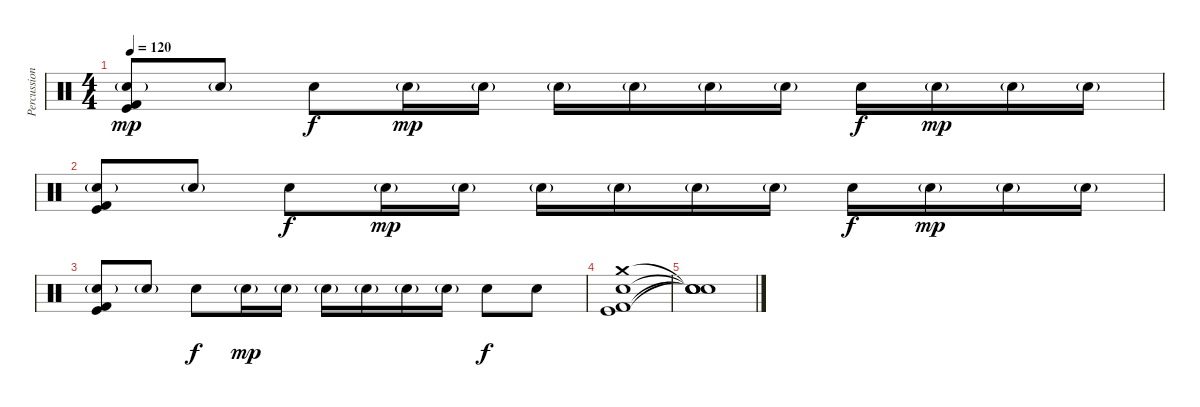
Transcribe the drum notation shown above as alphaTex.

\track ("Percussion" "Percussion") {instrument percussion}
\staff {score}
\articulation defaults
\ts (4 4)
\tempo 120
\clef neutral
\ks c
("Electric Snare (hit)"{g} "Kick (hit)" "Kick (hit) 2").8{dy mp} "Electric Snare (hit)"{g}.8 "Electric Snare (hit)".8{dy f} "Electric Snare (hit)"{g}.16{dy mp} "Electric Snare (hit)"{g}.16 "Electric Snare (hit)"{g}.16 "Electric Snare (hit)"{g}.16 "Electric Snare (hit)"{g}.16 "Electric Snare (hit)"{g}.16 "Electric Snare (hit)".16{dy f} "Electric Snare (hit)"{g}.16{dy mp} "Electric Snare (hit)"{g}.16 "Electric Snare (hit)"{g}.16 |
("Electric Snare (hit)"{g} "Kick (hit)" "Kick (hit) 2").8 "Electric Snare (hit)"{g}.8 "Electric Snare (hit)".8{dy f} "Electric Snare (hit)"{g}.16{dy mp} "Electric Snare (hit)"{g}.16 "Electric Snare (hit)"{g}.16 "Electric Snare (hit)"{g}.16 "Electric Snare (hit)"{g}.16 "Electric Snare (hit)"{g}.16 "Electric Snare (hit)".16{dy f} "Electric Snare (hit)"{g}.16{dy mp} "Electric Snare (hit)"{g}.16 "Electric Snare (hit)"{g}.16 |
("Electric Snare (hit)"{g} "Kick (hit)" "Kick (hit) 2").8 "Electric Snare (hit)"{g}.8 "Electric Snare (hit)".8{dy f} "Electric Snare (hit)"{g}.16{dy mp} "Electric Snare (hit)"{g}.16 "Electric Snare (hit)"{g}.16 "Electric Snare (hit)"{g}.16 "Electric Snare (hit)"{g}.16 "Electric Snare (hit)"{g}.16 "Electric Snare (hit)".8{dy f} "Electric Snare (hit)".8 |
("Crash medium (hit)" "Electric Snare (hit)" "Kick (hit)" "Kick (hit) 2").1 |
("Snare (hit)"{t} "Snare (hit)"{t} "Snare (hit)"{t} "Snare (hit)"{t}).1
